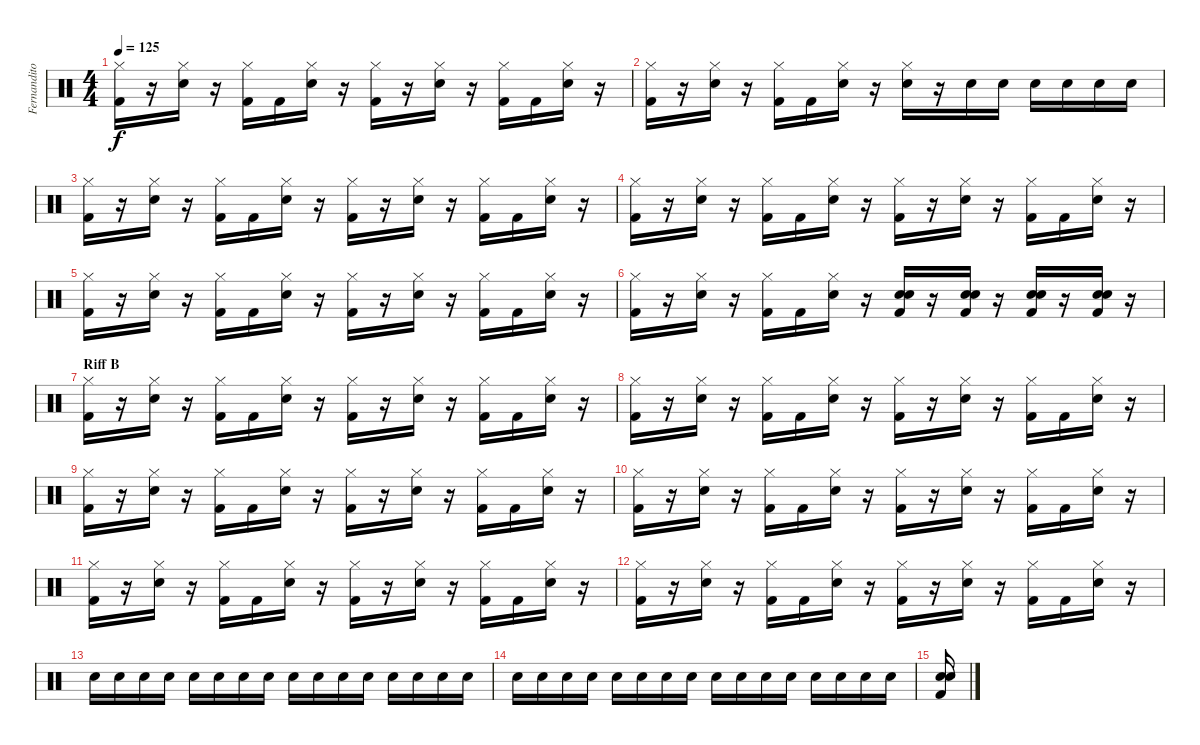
\track ("Fernandito" "Fernandito") {instrument percussion}
\staff {score}
\articulation defaults
\ts (4 4)
\tempo 125
\clef neutral
\ks c
("Hi-Hat (closed)" "Kick (hit) 2").16{dy f} r.16 ("Hi-Hat (closed)" "Snare (hit) 2").16 r.16 ("Hi-Hat (closed)" "Kick (hit) 2").16 "Kick (hit) 2".16 ("Hi-Hat (closed)" "Snare (hit) 2").16 r.16 ("Hi-Hat (closed)" "Kick (hit) 2").16 r.16 ("Hi-Hat (closed)" "Snare (hit) 2").16 r.16 ("Hi-Hat (closed)" "Kick (hit) 2").16 "Kick (hit) 2".16 ("Hi-Hat (closed)" "Snare (hit) 2").16 r.16 |
("Hi-Hat (closed)" "Kick (hit) 2").16 r.16 ("Hi-Hat (closed)" "Snare (hit) 2").16 r.16 ("Hi-Hat (closed)" "Kick (hit) 2").16 "Kick (hit) 2".16 ("Hi-Hat (closed)" "Snare (hit) 2").16 r.16 ("Hi-Hat (closed)" "Snare (hit) 2").16 r.16 "Snare (hit) 2".16 "Snare (hit) 2".16 "Snare (hit) 2".16 "Snare (hit) 2".16 "Snare (hit) 2".16 "Snare (hit) 2".16 |
("Hi-Hat (closed)" "Kick (hit) 2").16 r.16 ("Hi-Hat (closed)" "Snare (hit) 2").16 r.16 ("Hi-Hat (closed)" "Kick (hit) 2").16 "Kick (hit) 2".16 ("Hi-Hat (closed)" "Snare (hit) 2").16 r.16 ("Hi-Hat (closed)" "Kick (hit) 2").16 r.16 ("Hi-Hat (closed)" "Snare (hit) 2").16 r.16 ("Hi-Hat (closed)" "Kick (hit) 2").16 "Kick (hit) 2".16 ("Hi-Hat (closed)" "Snare (hit) 2").16 r.16 |
("Hi-Hat (closed)" "Kick (hit) 2").16 r.16 ("Hi-Hat (closed)" "Snare (hit) 2").16 r.16 ("Hi-Hat (closed)" "Kick (hit) 2").16 "Kick (hit) 2".16 ("Hi-Hat (closed)" "Snare (hit) 2").16 r.16 ("Hi-Hat (closed)" "Kick (hit) 2").16 r.16 ("Hi-Hat (closed)" "Snare (hit) 2").16 r.16 ("Hi-Hat (closed)" "Kick (hit) 2").16 "Kick (hit) 2".16 ("Hi-Hat (closed)" "Snare (hit) 2").16 r.16 |
("Hi-Hat (closed)" "Kick (hit) 2").16 r.16 ("Hi-Hat (closed)" "Snare (hit) 2").16 r.16 ("Hi-Hat (closed)" "Kick (hit) 2").16 "Kick (hit) 2".16 ("Hi-Hat (closed)" "Snare (hit) 2").16 r.16 ("Hi-Hat (closed)" "Kick (hit) 2").16 r.16 ("Hi-Hat (closed)" "Snare (hit) 2").16 r.16 ("Hi-Hat (closed)" "Kick (hit) 2").16 "Kick (hit) 2".16 ("Hi-Hat (closed)" "Snare (hit) 2").16 r.16 |
("Hi-Hat (closed)" "Kick (hit) 2").16 r.16 ("Hi-Hat (closed)" "Snare (hit) 2").16 r.16 ("Hi-Hat (closed)" "Kick (hit) 2").16 "Kick (hit) 2".16 ("Hi-Hat (closed)" "Snare (hit) 2").16 r.16 ("Snare (hit) 2" "Snare (hit) 2" "Kick (hit) 2").16 r.16 ("Snare (hit) 2" "Snare (hit) 2" "Kick (hit) 2").16 r.16 ("Snare (hit) 2" "Snare (hit) 2" "Kick (hit) 2").16 r.16 ("Snare (hit) 2" "Snare (hit) 2" "Kick (hit) 2").16 r.16 |
\section ("" "Riff B")
("Hi-Hat (closed)" "Kick (hit) 2").16 r.16 ("Hi-Hat (closed)" "Snare (hit) 2").16 r.16 ("Hi-Hat (closed)" "Kick (hit) 2").16 "Kick (hit) 2".16 ("Hi-Hat (closed)" "Snare (hit) 2").16 r.16 ("Hi-Hat (closed)" "Kick (hit) 2").16 r.16 ("Hi-Hat (closed)" "Snare (hit) 2").16 r.16 ("Hi-Hat (closed)" "Kick (hit) 2").16 "Kick (hit) 2".16 ("Hi-Hat (closed)" "Snare (hit) 2").16 r.16 |
("Hi-Hat (closed)" "Kick (hit) 2").16 r.16 ("Hi-Hat (closed)" "Snare (hit) 2").16 r.16 ("Hi-Hat (closed)" "Kick (hit) 2").16 "Kick (hit) 2".16 ("Hi-Hat (closed)" "Snare (hit) 2").16 r.16 ("Hi-Hat (closed)" "Kick (hit) 2").16 r.16 ("Hi-Hat (closed)" "Snare (hit) 2").16 r.16 ("Hi-Hat (closed)" "Kick (hit) 2").16 "Kick (hit) 2".16 ("Hi-Hat (closed)" "Snare (hit) 2").16 r.16 |
("Hi-Hat (closed)" "Kick (hit) 2").16 r.16 ("Hi-Hat (closed)" "Snare (hit) 2").16 r.16 ("Hi-Hat (closed)" "Kick (hit) 2").16 "Kick (hit) 2".16 ("Hi-Hat (closed)" "Snare (hit) 2").16 r.16 ("Hi-Hat (closed)" "Kick (hit) 2").16 r.16 ("Hi-Hat (closed)" "Snare (hit) 2").16 r.16 ("Hi-Hat (closed)" "Kick (hit) 2").16 "Kick (hit) 2".16 ("Hi-Hat (closed)" "Snare (hit) 2").16 r.16 |
("Hi-Hat (closed)" "Kick (hit) 2").16 r.16 ("Hi-Hat (closed)" "Snare (hit) 2").16 r.16 ("Hi-Hat (closed)" "Kick (hit) 2").16 "Kick (hit) 2".16 ("Hi-Hat (closed)" "Snare (hit) 2").16 r.16 ("Hi-Hat (closed)" "Kick (hit) 2").16 r.16 ("Hi-Hat (closed)" "Snare (hit) 2").16 r.16 ("Hi-Hat (closed)" "Kick (hit) 2").16 "Kick (hit) 2".16 ("Hi-Hat (closed)" "Snare (hit) 2").16 r.16 |
("Hi-Hat (closed)" "Kick (hit) 2").16 r.16 ("Hi-Hat (closed)" "Snare (hit) 2").16 r.16 ("Hi-Hat (closed)" "Kick (hit) 2").16 "Kick (hit) 2".16 ("Hi-Hat (closed)" "Snare (hit) 2").16 r.16 ("Hi-Hat (closed)" "Kick (hit) 2").16 r.16 ("Hi-Hat (closed)" "Snare (hit) 2").16 r.16 ("Hi-Hat (closed)" "Kick (hit) 2").16 "Kick (hit) 2".16 ("Hi-Hat (closed)" "Snare (hit) 2").16 r.16 |
("Hi-Hat (closed)" "Kick (hit) 2").16 r.16 ("Hi-Hat (closed)" "Snare (hit) 2").16 r.16 ("Hi-Hat (closed)" "Kick (hit) 2").16 "Kick (hit) 2".16 ("Hi-Hat (closed)" "Snare (hit) 2").16 r.16 ("Hi-Hat (closed)" "Kick (hit) 2").16 r.16 ("Hi-Hat (closed)" "Snare (hit) 2").16 r.16 ("Hi-Hat (closed)" "Kick (hit) 2").16 "Kick (hit) 2".16 ("Hi-Hat (closed)" "Snare (hit) 2").16 r.16 |
"Snare (hit) 2".16 "Snare (hit) 2".16 "Snare (hit) 2".16 "Snare (hit) 2".16 "Snare (hit) 2".16 "Snare (hit) 2".16 "Snare (hit) 2".16 "Snare (hit) 2".16 "Snare (hit) 2".16 "Snare (hit) 2".16 "Snare (hit) 2".16 "Snare (hit) 2".16 "Snare (hit) 2".16 "Snare (hit) 2".16 "Snare (hit) 2".16 "Snare (hit) 2".16 |
"Snare (hit) 2".16 "Snare (hit) 2".16 "Snare (hit) 2".16 "Snare (hit) 2".16 "Snare (hit) 2".16 "Snare (hit) 2".16 "Snare (hit) 2".16 "Snare (hit) 2".16 "Snare (hit) 2".16 "Snare (hit) 2".16 "Snare (hit) 2".16 "Snare (hit) 2".16 "Snare (hit) 2".16 "Snare (hit) 2".16 "Snare (hit) 2".16 "Snare (hit) 2".16 |
("Snare (hit) 2" "Snare (hit) 2" "Kick (hit) 2").16
